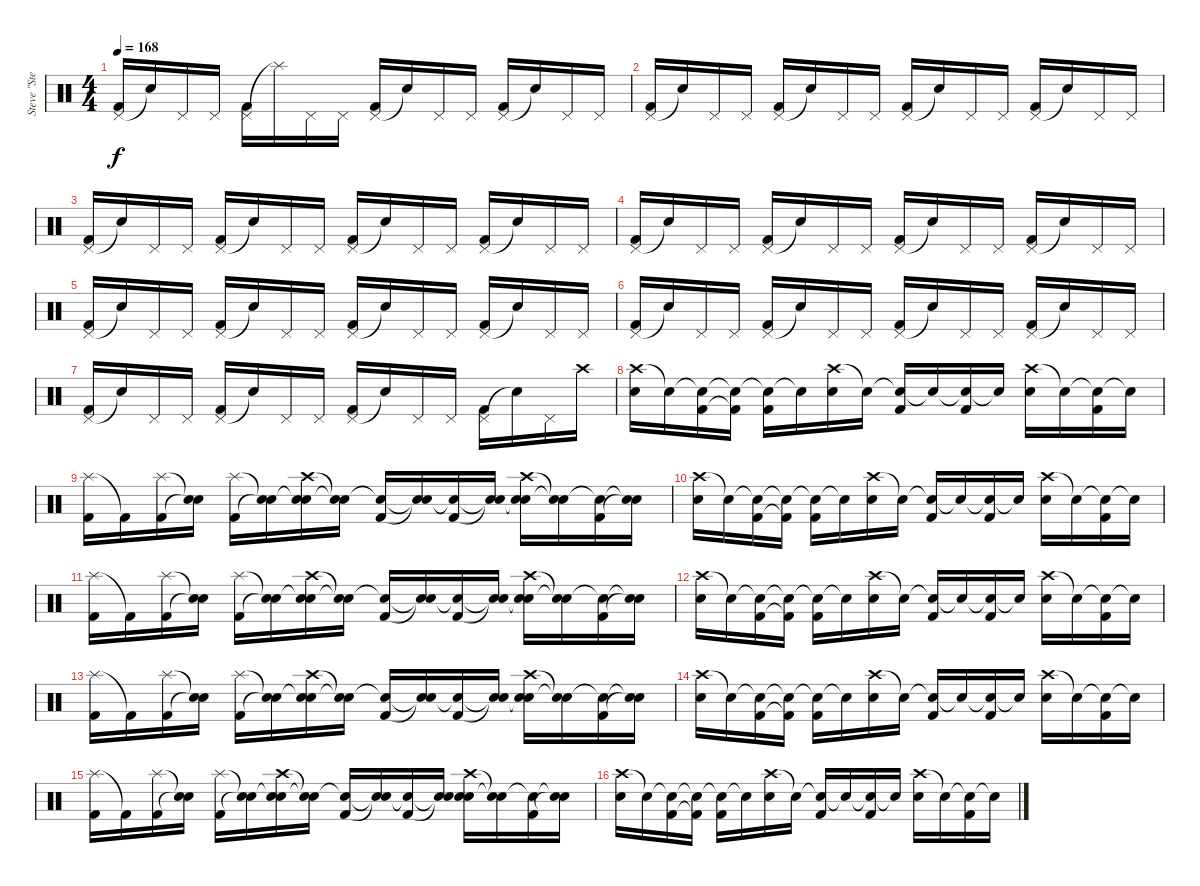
\track ("Steve \"Stevo 32\" Jocz" "Steve \"Ste") {instrument percussion}
\staff {score}
\articulation defaults
\ts (4 4)
\tempo 168
\clef neutral
\ks c
("Pedal Hi-Hat (hit)" "Kick (hit) 2").16{dy f} "Snare (hit)"{t}.16 "Pedal Hi-Hat (hit)".16 "Pedal Hi-Hat (hit)".16 ("Pedal Hi-Hat (hit)" "Kick (hit) 2").16 "Splash (hit)"{t}.16 "Pedal Hi-Hat (hit)".16 "Pedal Hi-Hat (hit)".16 ("Pedal Hi-Hat (hit)" "Kick (hit) 2").16 "Snare (hit)"{t}.16 "Pedal Hi-Hat (hit)".16 "Pedal Hi-Hat (hit)".16 ("Pedal Hi-Hat (hit)" "Kick (hit) 2").16 "Snare (hit)"{t}.16 "Pedal Hi-Hat (hit)".16 "Pedal Hi-Hat (hit)".16 |
("Pedal Hi-Hat (hit)" "Kick (hit) 2").16 "Snare (hit)"{t}.16 "Pedal Hi-Hat (hit)".16 "Pedal Hi-Hat (hit)".16 ("Pedal Hi-Hat (hit)" "Kick (hit) 2").16 "Snare (hit)"{t}.16 "Pedal Hi-Hat (hit)".16 "Pedal Hi-Hat (hit)".16 ("Pedal Hi-Hat (hit)" "Kick (hit) 2").16 "Snare (hit)"{t}.16 "Pedal Hi-Hat (hit)".16 "Pedal Hi-Hat (hit)".16 ("Pedal Hi-Hat (hit)" "Kick (hit) 2").16 "Snare (hit)"{t}.16 "Pedal Hi-Hat (hit)".16 "Pedal Hi-Hat (hit)".16 |
("Pedal Hi-Hat (hit)" "Kick (hit) 2").16 "Snare (hit)"{t}.16 "Pedal Hi-Hat (hit)".16 "Pedal Hi-Hat (hit)".16 ("Pedal Hi-Hat (hit)" "Kick (hit) 2").16 "Snare (hit)"{t}.16 "Pedal Hi-Hat (hit)".16 "Pedal Hi-Hat (hit)".16 ("Pedal Hi-Hat (hit)" "Kick (hit) 2").16 "Snare (hit)"{t}.16 "Pedal Hi-Hat (hit)".16 "Pedal Hi-Hat (hit)".16 ("Pedal Hi-Hat (hit)" "Kick (hit) 2").16 "Snare (hit)"{t}.16 "Pedal Hi-Hat (hit)".16 "Pedal Hi-Hat (hit)".16 |
("Pedal Hi-Hat (hit)" "Kick (hit) 2").16 "Snare (hit)"{t}.16 "Pedal Hi-Hat (hit)".16 "Pedal Hi-Hat (hit)".16 ("Pedal Hi-Hat (hit)" "Kick (hit) 2").16 "Snare (hit)"{t}.16 "Pedal Hi-Hat (hit)".16 "Pedal Hi-Hat (hit)".16 ("Pedal Hi-Hat (hit)" "Kick (hit) 2").16 "Snare (hit)"{t}.16 "Pedal Hi-Hat (hit)".16 "Pedal Hi-Hat (hit)".16 ("Pedal Hi-Hat (hit)" "Kick (hit) 2").16 "Snare (hit)"{t}.16 "Pedal Hi-Hat (hit)".16 "Pedal Hi-Hat (hit)".16 |
("Pedal Hi-Hat (hit)" "Kick (hit) 2").16 "Snare (hit)"{t}.16 "Pedal Hi-Hat (hit)".16 "Pedal Hi-Hat (hit)".16 ("Pedal Hi-Hat (hit)" "Kick (hit) 2").16 "Snare (hit)"{t}.16 "Pedal Hi-Hat (hit)".16 "Pedal Hi-Hat (hit)".16 ("Pedal Hi-Hat (hit)" "Kick (hit) 2").16 "Snare (hit)"{t}.16 "Pedal Hi-Hat (hit)".16 "Pedal Hi-Hat (hit)".16 ("Pedal Hi-Hat (hit)" "Kick (hit) 2").16 "Snare (hit)"{t}.16 "Pedal Hi-Hat (hit)".16 "Pedal Hi-Hat (hit)".16 |
("Pedal Hi-Hat (hit)" "Kick (hit) 2").16 "Snare (hit)"{t}.16 "Pedal Hi-Hat (hit)".16 "Pedal Hi-Hat (hit)".16 ("Pedal Hi-Hat (hit)" "Kick (hit) 2").16 "Snare (hit)"{t}.16 "Pedal Hi-Hat (hit)".16 "Pedal Hi-Hat (hit)".16 ("Pedal Hi-Hat (hit)" "Kick (hit) 2").16 "Snare (hit)"{t}.16 "Pedal Hi-Hat (hit)".16 "Pedal Hi-Hat (hit)".16 ("Pedal Hi-Hat (hit)" "Kick (hit) 2").16 "Snare (hit)"{t}.16 "Pedal Hi-Hat (hit)".16 "Pedal Hi-Hat (hit)".16 |
("Pedal Hi-Hat (hit)" "Kick (hit) 2").16 "Snare (hit)"{t}.16 "Pedal Hi-Hat (hit)".16 "Pedal Hi-Hat (hit)".16 ("Pedal Hi-Hat (hit)" "Kick (hit) 2").16 "Snare (hit)"{t}.16 "Pedal Hi-Hat (hit)".16 "Pedal Hi-Hat (hit)".16 ("Pedal Hi-Hat (hit)" "Kick (hit) 2").16 "Snare (hit)"{t}.16 "Pedal Hi-Hat (hit)".16 "Pedal Hi-Hat (hit)".16 ("Pedal Hi-Hat (hit)" "Kick (hit) 2").16 "Snare (hit)"{t}.16 "Pedal Hi-Hat (hit)".16 "Crash high (hit)".16 |
("Crash high (hit)" "Snare (hit) 2").16 "Snare (hit)"{t}.16 ("Snare (hit)"{t} "Kick (hit) 2").16 ("Snare (hit)"{t} "Kick (hit) 2"{t}).16 ("Snare (hit)"{t} "Kick (hit) 2").16 "Snare (hit)"{t}.16 ("Crash high (hit)" "Snare (hit) 2").16 "Snare (hit)"{t}.16 ("Snare (hit)"{t} "Kick (hit) 2").16 "Snare (hit)"{t}.16 ("Snare (hit)"{t} "Kick (hit) 2").16 "Snare (hit)"{t}.16 ("Crash high (hit)" "Snare (hit) 2").16 "Snare (hit)"{t}.16 ("Snare (hit)"{t} "Kick (hit) 2").16 "Snare (hit)"{t}.16 |
("Splash (hit)" "Kick (hit) 2").16 "Kick (hit) 2"{t}.16 ("Splash (hit)" "Kick (hit) 2").16 ("Snare (hit)"{t} "Snare (hit)"{t}).16 ("Splash (hit)" "Kick (hit) 2").16 ("Snare (hit)"{t} "Snare (hit)"{t}).16 ("Crash high (hit)" "Snare (hit)"{t} "Snare (hit) 2").16 ("Snare (hit)"{t} "Snare (hit)"{t}).16 ("Snare (hit)"{t} "Kick (hit) 2").16 ("Snare (hit)"{t} "Snare (hit)"{t}).16 ("Snare (hit)"{t} "Kick (hit) 2").16 ("Snare (hit)"{t} "Snare (hit)"{t}).16 ("Crash high (hit)" "Snare (hit)"{t} "Snare (hit) 2").16 ("Snare (hit)"{t} "Snare (hit)"{t}).16 ("Snare (hit)"{t} "Kick (hit) 2").16 ("Snare (hit)"{t} "Snare (hit)"{t}).16 |
("Crash high (hit)" "Snare (hit) 2").16 "Snare (hit)"{t}.16 ("Snare (hit)"{t} "Kick (hit) 2").16 ("Snare (hit)"{t} "Kick (hit) 2"{t}).16 ("Snare (hit)"{t} "Kick (hit) 2").16 "Snare (hit)"{t}.16 ("Crash high (hit)" "Snare (hit) 2").16 "Snare (hit)"{t}.16 ("Snare (hit)"{t} "Kick (hit) 2").16 "Snare (hit)"{t}.16 ("Snare (hit)"{t} "Kick (hit) 2").16 "Snare (hit)"{t}.16 ("Crash high (hit)" "Snare (hit) 2").16 "Snare (hit)"{t}.16 ("Snare (hit)"{t} "Kick (hit) 2").16 "Snare (hit)"{t}.16 |
("Splash (hit)" "Kick (hit) 2").16 "Kick (hit) 2"{t}.16 ("Splash (hit)" "Kick (hit) 2").16 ("Snare (hit)"{t} "Snare (hit)"{t}).16 ("Splash (hit)" "Kick (hit) 2").16 ("Snare (hit)"{t} "Snare (hit)"{t}).16 ("Crash high (hit)" "Snare (hit)"{t} "Snare (hit) 2").16 ("Snare (hit)"{t} "Snare (hit)"{t}).16 ("Snare (hit)"{t} "Kick (hit) 2").16 ("Snare (hit)"{t} "Snare (hit)"{t}).16 ("Snare (hit)"{t} "Kick (hit) 2").16 ("Snare (hit)"{t} "Snare (hit)"{t}).16 ("Crash high (hit)" "Snare (hit)"{t} "Snare (hit) 2").16 ("Snare (hit)"{t} "Snare (hit)"{t}).16 ("Snare (hit)"{t} "Kick (hit) 2").16 ("Snare (hit)"{t} "Snare (hit)"{t}).16 |
("Crash high (hit)" "Snare (hit) 2").16 "Snare (hit)"{t}.16 ("Snare (hit)"{t} "Kick (hit) 2").16 ("Snare (hit)"{t} "Kick (hit) 2"{t}).16 ("Snare (hit)"{t} "Kick (hit) 2").16 "Snare (hit)"{t}.16 ("Crash high (hit)" "Snare (hit) 2").16 "Snare (hit)"{t}.16 ("Snare (hit)"{t} "Kick (hit) 2").16 "Snare (hit)"{t}.16 ("Snare (hit)"{t} "Kick (hit) 2").16 "Snare (hit)"{t}.16 ("Crash high (hit)" "Snare (hit) 2").16 "Snare (hit)"{t}.16 ("Snare (hit)"{t} "Kick (hit) 2").16 "Snare (hit)"{t}.16 |
("Splash (hit)" "Kick (hit) 2").16 "Kick (hit) 2"{t}.16 ("Splash (hit)" "Kick (hit) 2").16 ("Snare (hit)"{t} "Snare (hit)"{t}).16 ("Splash (hit)" "Kick (hit) 2").16 ("Snare (hit)"{t} "Snare (hit)"{t}).16 ("Crash high (hit)" "Snare (hit)"{t} "Snare (hit) 2").16 ("Snare (hit)"{t} "Snare (hit)"{t}).16 ("Snare (hit)"{t} "Kick (hit) 2").16 ("Snare (hit)"{t} "Snare (hit)"{t}).16 ("Snare (hit)"{t} "Kick (hit) 2").16 ("Snare (hit)"{t} "Snare (hit)"{t}).16 ("Crash high (hit)" "Snare (hit)"{t} "Snare (hit) 2").16 ("Snare (hit)"{t} "Snare (hit)"{t}).16 ("Snare (hit)"{t} "Kick (hit) 2").16 ("Snare (hit)"{t} "Snare (hit)"{t}).16 |
("Crash high (hit)" "Snare (hit) 2").16 "Snare (hit)"{t}.16 ("Snare (hit)"{t} "Kick (hit) 2").16 ("Snare (hit)"{t} "Kick (hit) 2"{t}).16 ("Snare (hit)"{t} "Kick (hit) 2").16 "Snare (hit)"{t}.16 ("Crash high (hit)" "Snare (hit) 2").16 "Snare (hit)"{t}.16 ("Snare (hit)"{t} "Kick (hit) 2").16 "Snare (hit)"{t}.16 ("Snare (hit)"{t} "Kick (hit) 2").16 "Snare (hit)"{t}.16 ("Crash high (hit)" "Snare (hit) 2").16 "Snare (hit)"{t}.16 ("Snare (hit)"{t} "Kick (hit) 2").16 "Snare (hit)"{t}.16 |
("Splash (hit)" "Kick (hit) 2").16 "Kick (hit) 2"{t}.16 ("Splash (hit)" "Kick (hit) 2").16 ("Snare (hit)"{t} "Snare (hit)"{t}).16 ("Splash (hit)" "Kick (hit) 2").16 ("Snare (hit)"{t} "Snare (hit)"{t}).16 ("Crash high (hit)" "Snare (hit)"{t} "Snare (hit) 2").16 ("Snare (hit)"{t} "Snare (hit)"{t}).16 ("Snare (hit)"{t} "Kick (hit) 2").16 ("Snare (hit)"{t} "Snare (hit)"{t}).16 ("Snare (hit)"{t} "Kick (hit) 2").16 ("Snare (hit)"{t} "Snare (hit)"{t}).16 ("Crash high (hit)" "Snare (hit)"{t} "Snare (hit) 2").16 ("Snare (hit)"{t} "Snare (hit)"{t}).16 ("Snare (hit)"{t} "Kick (hit) 2").16 ("Snare (hit)"{t} "Snare (hit)"{t}).16 |
("Crash high (hit)" "Snare (hit) 2").16 "Snare (hit)"{t}.16 ("Snare (hit)"{t} "Kick (hit) 2").16 ("Snare (hit)"{t} "Kick (hit) 2"{t}).16 ("Snare (hit)"{t} "Kick (hit) 2").16 "Snare (hit)"{t}.16 ("Crash high (hit)" "Snare (hit) 2").16 "Snare (hit)"{t}.16 ("Snare (hit)"{t} "Kick (hit) 2").16 "Snare (hit)"{t}.16 ("Snare (hit)"{t} "Kick (hit) 2").16 "Snare (hit)"{t}.16 ("Crash high (hit)" "Snare (hit) 2").16 "Snare (hit)"{t}.16 ("Snare (hit)"{t} "Kick (hit) 2").16 "Snare (hit)"{t}.16
